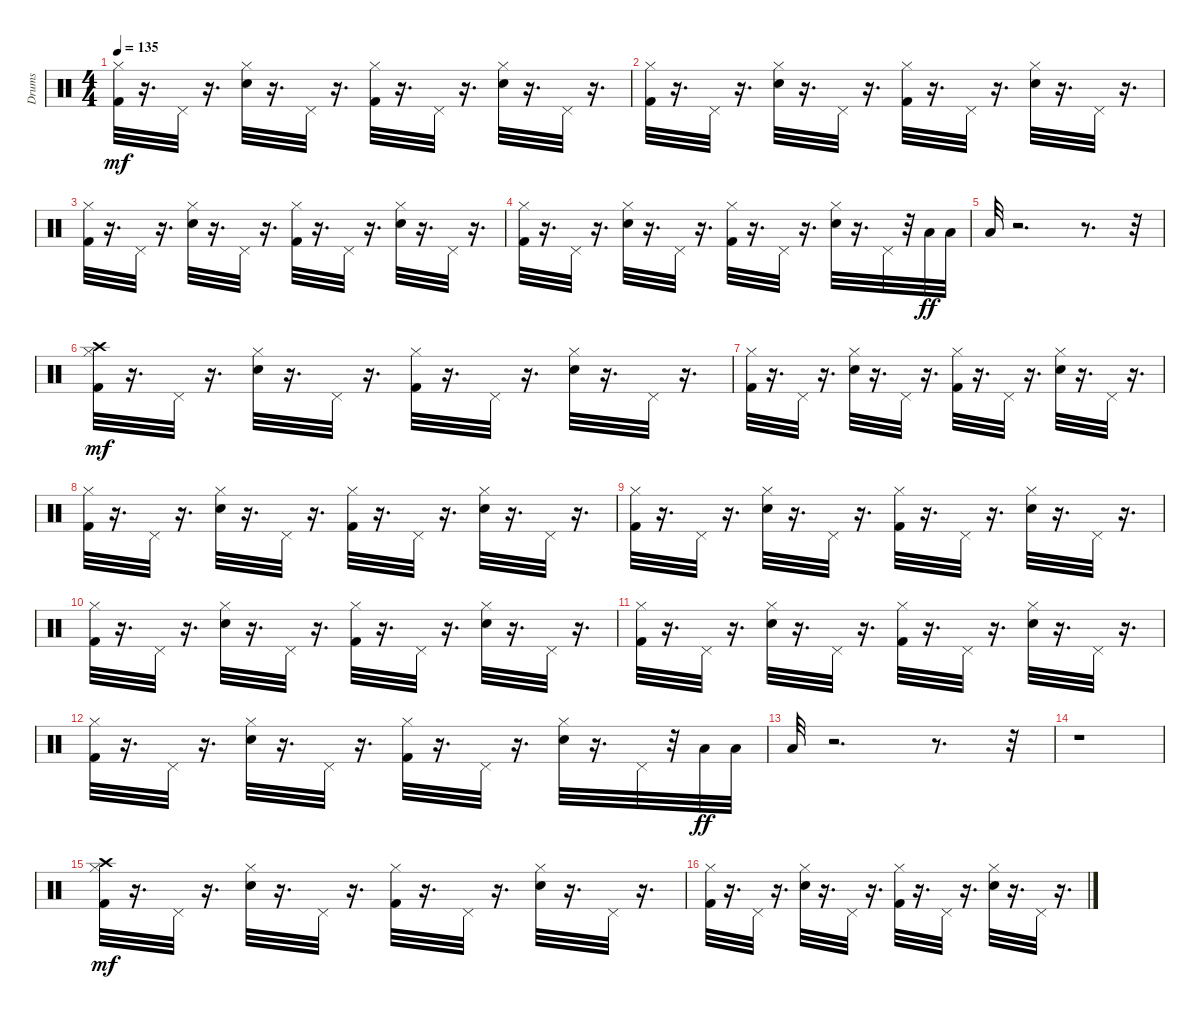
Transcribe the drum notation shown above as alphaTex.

\track ("Drums" "Drums") {instrument percussion}
\staff {score}
\articulation defaults
\ts (4 4)
\tempo 135
\clef neutral
\ks c
("Hi-Hat (closed)" "Kick (hit) 2").32{dy mf} r.16{d} "Pedal Hi-Hat (hit)".32 r.16{d} ("Hi-Hat (closed)" "Snare (hit) 2").32 r.16{d} "Pedal Hi-Hat (hit)".32 r.16{d} ("Hi-Hat (closed)" "Kick (hit) 2").32 r.16{d} "Pedal Hi-Hat (hit)".32 r.16{d} ("Hi-Hat (closed)" "Snare (hit) 2").32 r.16{d} "Pedal Hi-Hat (hit)".32 r.16{d} |
("Hi-Hat (closed)" "Kick (hit) 2").32 r.16{d} "Pedal Hi-Hat (hit)".32 r.16{d} ("Hi-Hat (closed)" "Snare (hit) 2").32 r.16{d} "Pedal Hi-Hat (hit)".32 r.16{d} ("Hi-Hat (closed)" "Kick (hit) 2").32 r.16{d} "Pedal Hi-Hat (hit)".32 r.16{d} ("Hi-Hat (closed)" "Snare (hit) 2").32 r.16{d} "Pedal Hi-Hat (hit)".32 r.16{d} |
("Hi-Hat (closed)" "Kick (hit) 2").32 r.16{d} "Pedal Hi-Hat (hit)".32 r.16{d} ("Hi-Hat (closed)" "Snare (hit) 2").32 r.16{d} "Pedal Hi-Hat (hit)".32 r.16{d} ("Hi-Hat (closed)" "Kick (hit) 2").32 r.16{d} "Pedal Hi-Hat (hit)".32 r.16{d} ("Hi-Hat (closed)" "Snare (hit) 2").32 r.16{d} "Pedal Hi-Hat (hit)".32 r.16{d} |
("Hi-Hat (closed)" "Kick (hit) 2").32 r.16{d} "Pedal Hi-Hat (hit)".32 r.16{d} ("Hi-Hat (closed)" "Snare (hit) 2").32 r.16{d} "Pedal Hi-Hat (hit)".32 r.16{d} ("Hi-Hat (closed)" "Kick (hit) 2").32 r.16{d} "Pedal Hi-Hat (hit)".32 r.16{d} ("Hi-Hat (closed)" "Snare (hit) 2").32 r.16{d} "Pedal Hi-Hat (hit)".32 r.32 "Low Tom (hit)".32{dy ff} "Low Tom (hit)".32 |
"Low Tom (hit)".32 r.2{d} r.8{d} r.32 |
("Hi-Hat (closed)" "Kick (hit) 2" "Crash high (hit)").32{dy mf} r.16{d} "Pedal Hi-Hat (hit)".32 r.16{d} ("Hi-Hat (closed)" "Snare (hit) 2").32 r.16{d} "Pedal Hi-Hat (hit)".32 r.16{d} ("Hi-Hat (closed)" "Kick (hit) 2").32 r.16{d} "Pedal Hi-Hat (hit)".32 r.16{d} ("Hi-Hat (closed)" "Snare (hit) 2").32 r.16{d} "Pedal Hi-Hat (hit)".32 r.16{d} |
("Hi-Hat (closed)" "Kick (hit) 2").32 r.16{d} "Pedal Hi-Hat (hit)".32 r.16{d} ("Hi-Hat (closed)" "Snare (hit) 2").32 r.16{d} "Pedal Hi-Hat (hit)".32 r.16{d} ("Hi-Hat (closed)" "Kick (hit) 2").32 r.16{d} "Pedal Hi-Hat (hit)".32 r.16{d} ("Hi-Hat (closed)" "Snare (hit) 2").32 r.16{d} "Pedal Hi-Hat (hit)".32 r.16{d} |
("Hi-Hat (closed)" "Kick (hit) 2").32 r.16{d} "Pedal Hi-Hat (hit)".32 r.16{d} ("Hi-Hat (closed)" "Snare (hit) 2").32 r.16{d} "Pedal Hi-Hat (hit)".32 r.16{d} ("Hi-Hat (closed)" "Kick (hit) 2").32 r.16{d} "Pedal Hi-Hat (hit)".32 r.16{d} ("Hi-Hat (closed)" "Snare (hit) 2").32 r.16{d} "Pedal Hi-Hat (hit)".32 r.16{d} |
("Hi-Hat (closed)" "Kick (hit) 2").32 r.16{d} "Pedal Hi-Hat (hit)".32 r.16{d} ("Hi-Hat (closed)" "Snare (hit) 2").32 r.16{d} "Pedal Hi-Hat (hit)".32 r.16{d} ("Hi-Hat (closed)" "Kick (hit) 2").32 r.16{d} "Pedal Hi-Hat (hit)".32 r.16{d} ("Hi-Hat (closed)" "Snare (hit) 2").32 r.16{d} "Pedal Hi-Hat (hit)".32 r.16{d} |
("Hi-Hat (closed)" "Kick (hit) 2").32 r.16{d} "Pedal Hi-Hat (hit)".32 r.16{d} ("Hi-Hat (closed)" "Snare (hit) 2").32 r.16{d} "Pedal Hi-Hat (hit)".32 r.16{d} ("Hi-Hat (closed)" "Kick (hit) 2").32 r.16{d} "Pedal Hi-Hat (hit)".32 r.16{d} ("Hi-Hat (closed)" "Snare (hit) 2").32 r.16{d} "Pedal Hi-Hat (hit)".32 r.16{d} |
("Hi-Hat (closed)" "Kick (hit) 2").32 r.16{d} "Pedal Hi-Hat (hit)".32 r.16{d} ("Hi-Hat (closed)" "Snare (hit) 2").32 r.16{d} "Pedal Hi-Hat (hit)".32 r.16{d} ("Hi-Hat (closed)" "Kick (hit) 2").32 r.16{d} "Pedal Hi-Hat (hit)".32 r.16{d} ("Hi-Hat (closed)" "Snare (hit) 2").32 r.16{d} "Pedal Hi-Hat (hit)".32 r.16{d} |
("Hi-Hat (closed)" "Kick (hit) 2").32 r.16{d} "Pedal Hi-Hat (hit)".32 r.16{d} ("Hi-Hat (closed)" "Snare (hit) 2").32 r.16{d} "Pedal Hi-Hat (hit)".32 r.16{d} ("Hi-Hat (closed)" "Kick (hit) 2").32 r.16{d} "Pedal Hi-Hat (hit)".32 r.16{d} ("Hi-Hat (closed)" "Snare (hit) 2").32 r.16{d} "Pedal Hi-Hat (hit)".32 r.32 "Low Tom (hit)".32{dy ff} "Low Tom (hit)".32 |
"Low Tom (hit)".32 r.2{d} r.8{d} r.32 |
r.1 |
("Crash high (hit)" "Hi-Hat (closed)" "Kick (hit) 2").32{dy mf} r.16{d} "Pedal Hi-Hat (hit)".32 r.16{d} ("Hi-Hat (closed)" "Snare (hit) 2").32 r.16{d} "Pedal Hi-Hat (hit)".32 r.16{d} ("Hi-Hat (closed)" "Kick (hit) 2").32 r.16{d} "Pedal Hi-Hat (hit)".32 r.16{d} ("Hi-Hat (closed)" "Snare (hit) 2").32 r.16{d} "Pedal Hi-Hat (hit)".32 r.16{d} |
("Hi-Hat (closed)" "Kick (hit) 2").32 r.16{d} "Pedal Hi-Hat (hit)".32 r.16{d} ("Hi-Hat (closed)" "Snare (hit) 2").32 r.16{d} "Pedal Hi-Hat (hit)".32 r.16{d} ("Hi-Hat (closed)" "Kick (hit) 2").32 r.16{d} "Pedal Hi-Hat (hit)".32 r.16{d} ("Hi-Hat (closed)" "Snare (hit) 2").32 r.16{d} "Pedal Hi-Hat (hit)".32 r.16{d}
